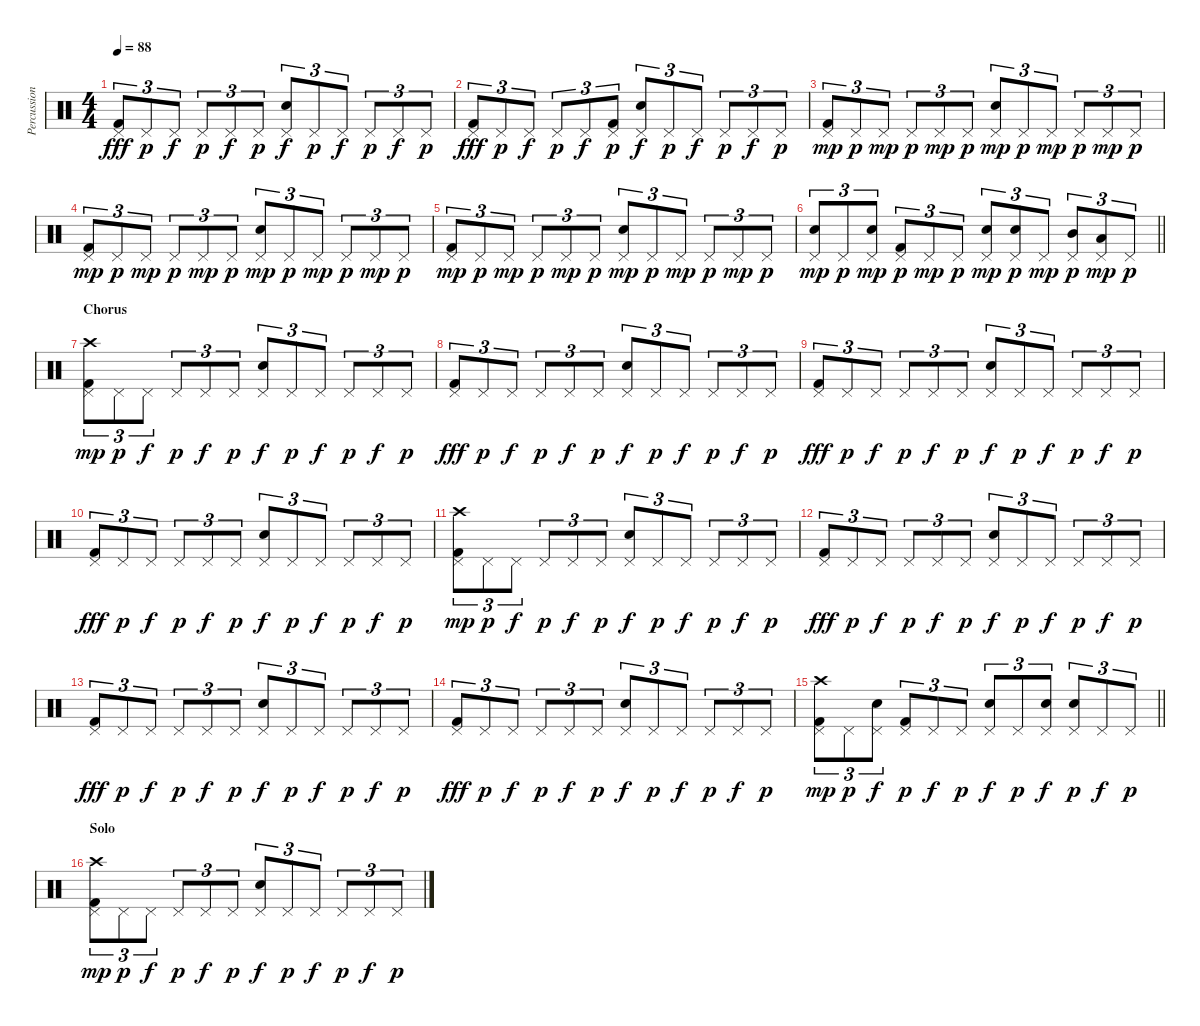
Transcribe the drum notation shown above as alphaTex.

\track ("Percussion" "Percussion") {instrument percussion}
\staff {score}
\articulation defaults
\ts (4 4)
\tempo 88
\clef neutral
\ks c
("Kick (hit) 2" "Pedal Hi-Hat (hit)").8{tu (3 2) dy fff} "Pedal Hi-Hat (hit)".8{tu (3 2) dy p} "Pedal Hi-Hat (hit)".8{tu (3 2) dy f} "Pedal Hi-Hat (hit)".8{tu (3 2) dy p} "Pedal Hi-Hat (hit)".8{tu (3 2) dy f} "Pedal Hi-Hat (hit)".8{tu (3 2) dy p} ("Electric Snare (hit)" "Pedal Hi-Hat (hit)").8{tu (3 2) dy f} "Pedal Hi-Hat (hit)".8{tu (3 2) dy p} "Pedal Hi-Hat (hit)".8{tu (3 2) dy f} "Pedal Hi-Hat (hit)".8{tu (3 2) dy p} "Pedal Hi-Hat (hit)".8{tu (3 2) dy f} "Pedal Hi-Hat (hit)".8{tu (3 2) dy p} |
("Kick (hit) 2" "Pedal Hi-Hat (hit)").8{tu (3 2) dy fff} "Pedal Hi-Hat (hit)".8{tu (3 2) dy p} "Pedal Hi-Hat (hit)".8{tu (3 2) dy f} "Pedal Hi-Hat (hit)".8{tu (3 2) dy p} "Pedal Hi-Hat (hit)".8{tu (3 2) dy f} ("Kick (hit) 2" "Pedal Hi-Hat (hit)").8{tu (3 2) dy p} ("Electric Snare (hit)" "Pedal Hi-Hat (hit)").8{tu (3 2) dy f} "Pedal Hi-Hat (hit)".8{tu (3 2) dy p} "Pedal Hi-Hat (hit)".8{tu (3 2) dy f} "Pedal Hi-Hat (hit)".8{tu (3 2) dy p} "Pedal Hi-Hat (hit)".8{tu (3 2) dy f} "Pedal Hi-Hat (hit)".8{tu (3 2) dy p} |
("Kick (hit) 2" "Pedal Hi-Hat (hit)").8{tu (3 2) dy mp} "Pedal Hi-Hat (hit)".8{tu (3 2) dy p} "Pedal Hi-Hat (hit)".8{tu (3 2) dy mp} "Pedal Hi-Hat (hit)".8{tu (3 2) dy p} "Pedal Hi-Hat (hit)".8{tu (3 2) dy mp} "Pedal Hi-Hat (hit)".8{tu (3 2) dy p} ("Electric Snare (hit)" "Pedal Hi-Hat (hit)").8{tu (3 2) dy mp} "Pedal Hi-Hat (hit)".8{tu (3 2) dy p} "Pedal Hi-Hat (hit)".8{tu (3 2) dy mp} "Pedal Hi-Hat (hit)".8{tu (3 2) dy p} "Pedal Hi-Hat (hit)".8{tu (3 2) dy mp} "Pedal Hi-Hat (hit)".8{tu (3 2) dy p} |
("Kick (hit) 2" "Pedal Hi-Hat (hit)").8{tu (3 2) dy mp} "Pedal Hi-Hat (hit)".8{tu (3 2) dy p} "Pedal Hi-Hat (hit)".8{tu (3 2) dy mp} "Pedal Hi-Hat (hit)".8{tu (3 2) dy p} "Pedal Hi-Hat (hit)".8{tu (3 2) dy mp} "Pedal Hi-Hat (hit)".8{tu (3 2) dy p} ("Electric Snare (hit)" "Pedal Hi-Hat (hit)").8{tu (3 2) dy mp} "Pedal Hi-Hat (hit)".8{tu (3 2) dy p} "Pedal Hi-Hat (hit)".8{tu (3 2) dy mp} "Pedal Hi-Hat (hit)".8{tu (3 2) dy p} "Pedal Hi-Hat (hit)".8{tu (3 2) dy mp} "Pedal Hi-Hat (hit)".8{tu (3 2) dy p} |
("Kick (hit) 2" "Pedal Hi-Hat (hit)").8{tu (3 2) dy mp} "Pedal Hi-Hat (hit)".8{tu (3 2) dy p} "Pedal Hi-Hat (hit)".8{tu (3 2) dy mp} "Pedal Hi-Hat (hit)".8{tu (3 2) dy p} "Pedal Hi-Hat (hit)".8{tu (3 2) dy mp} "Pedal Hi-Hat (hit)".8{tu (3 2) dy p} ("Electric Snare (hit)" "Pedal Hi-Hat (hit)").8{tu (3 2) dy mp} "Pedal Hi-Hat (hit)".8{tu (3 2) dy p} "Pedal Hi-Hat (hit)".8{tu (3 2) dy mp} "Pedal Hi-Hat (hit)".8{tu (3 2) dy p} "Pedal Hi-Hat (hit)".8{tu (3 2) dy mp} "Pedal Hi-Hat (hit)".8{tu (3 2) dy p} |
\barLineRight lightlight
("Electric Snare (hit)" "Pedal Hi-Hat (hit)").8{tu (3 2) dy mp} "Pedal Hi-Hat (hit)".8{tu (3 2) dy p} ("Electric Snare (hit)" "Pedal Hi-Hat (hit)").8{tu (3 2) dy mp} ("Kick (hit) 2" "Pedal Hi-Hat (hit)").8{tu (3 2) dy p} "Pedal Hi-Hat (hit)".8{tu (3 2) dy mp} "Pedal Hi-Hat (hit)".8{tu (3 2) dy p} ("Electric Snare (hit)" "Pedal Hi-Hat (hit)").8{tu (3 2) dy mp} ("Electric Snare (hit)" "Pedal Hi-Hat (hit)").8{tu (3 2) dy p} "Pedal Hi-Hat (hit)".8{tu (3 2) dy mp} ("Mid Tom (hit)" "Pedal Hi-Hat (hit)").8{tu (3 2) dy p} ("Low Tom (hit)" "Pedal Hi-Hat (hit)").8{tu (3 2) dy mp} "Pedal Hi-Hat (hit)".8{tu (3 2) dy p} |
\section ("" "Chorus")
("Kick (hit) 2" "Pedal Hi-Hat (hit)" "Crash high (hit)").8{tu (3 2) dy mp} "Pedal Hi-Hat (hit)".8{tu (3 2) dy p} "Pedal Hi-Hat (hit)".8{tu (3 2) dy f} "Pedal Hi-Hat (hit)".8{tu (3 2) dy p} "Pedal Hi-Hat (hit)".8{tu (3 2) dy f} "Pedal Hi-Hat (hit)".8{tu (3 2) dy p} ("Electric Snare (hit)" "Pedal Hi-Hat (hit)").8{tu (3 2) dy f} "Pedal Hi-Hat (hit)".8{tu (3 2) dy p} "Pedal Hi-Hat (hit)".8{tu (3 2) dy f} "Pedal Hi-Hat (hit)".8{tu (3 2) dy p} "Pedal Hi-Hat (hit)".8{tu (3 2) dy f} "Pedal Hi-Hat (hit)".8{tu (3 2) dy p} |
("Kick (hit) 2" "Pedal Hi-Hat (hit)").8{tu (3 2) dy fff} "Pedal Hi-Hat (hit)".8{tu (3 2) dy p} "Pedal Hi-Hat (hit)".8{tu (3 2) dy f} "Pedal Hi-Hat (hit)".8{tu (3 2) dy p} "Pedal Hi-Hat (hit)".8{tu (3 2) dy f} "Pedal Hi-Hat (hit)".8{tu (3 2) dy p} ("Electric Snare (hit)" "Pedal Hi-Hat (hit)").8{tu (3 2) dy f} "Pedal Hi-Hat (hit)".8{tu (3 2) dy p} "Pedal Hi-Hat (hit)".8{tu (3 2) dy f} "Pedal Hi-Hat (hit)".8{tu (3 2) dy p} "Pedal Hi-Hat (hit)".8{tu (3 2) dy f} "Pedal Hi-Hat (hit)".8{tu (3 2) dy p} |
("Kick (hit) 2" "Pedal Hi-Hat (hit)").8{tu (3 2) dy fff} "Pedal Hi-Hat (hit)".8{tu (3 2) dy p} "Pedal Hi-Hat (hit)".8{tu (3 2) dy f} "Pedal Hi-Hat (hit)".8{tu (3 2) dy p} "Pedal Hi-Hat (hit)".8{tu (3 2) dy f} "Pedal Hi-Hat (hit)".8{tu (3 2) dy p} ("Electric Snare (hit)" "Pedal Hi-Hat (hit)").8{tu (3 2) dy f} "Pedal Hi-Hat (hit)".8{tu (3 2) dy p} "Pedal Hi-Hat (hit)".8{tu (3 2) dy f} "Pedal Hi-Hat (hit)".8{tu (3 2) dy p} "Pedal Hi-Hat (hit)".8{tu (3 2) dy f} "Pedal Hi-Hat (hit)".8{tu (3 2) dy p} |
("Kick (hit) 2" "Pedal Hi-Hat (hit)").8{tu (3 2) dy fff} "Pedal Hi-Hat (hit)".8{tu (3 2) dy p} "Pedal Hi-Hat (hit)".8{tu (3 2) dy f} "Pedal Hi-Hat (hit)".8{tu (3 2) dy p} "Pedal Hi-Hat (hit)".8{tu (3 2) dy f} "Pedal Hi-Hat (hit)".8{tu (3 2) dy p} ("Electric Snare (hit)" "Pedal Hi-Hat (hit)").8{tu (3 2) dy f} "Pedal Hi-Hat (hit)".8{tu (3 2) dy p} "Pedal Hi-Hat (hit)".8{tu (3 2) dy f} "Pedal Hi-Hat (hit)".8{tu (3 2) dy p} "Pedal Hi-Hat (hit)".8{tu (3 2) dy f} "Pedal Hi-Hat (hit)".8{tu (3 2) dy p} |
("Kick (hit) 2" "Pedal Hi-Hat (hit)" "Crash high (hit)").8{tu (3 2) dy mp} "Pedal Hi-Hat (hit)".8{tu (3 2) dy p} "Pedal Hi-Hat (hit)".8{tu (3 2) dy f} "Pedal Hi-Hat (hit)".8{tu (3 2) dy p} "Pedal Hi-Hat (hit)".8{tu (3 2) dy f} "Pedal Hi-Hat (hit)".8{tu (3 2) dy p} ("Electric Snare (hit)" "Pedal Hi-Hat (hit)").8{tu (3 2) dy f} "Pedal Hi-Hat (hit)".8{tu (3 2) dy p} "Pedal Hi-Hat (hit)".8{tu (3 2) dy f} "Pedal Hi-Hat (hit)".8{tu (3 2) dy p} "Pedal Hi-Hat (hit)".8{tu (3 2) dy f} "Pedal Hi-Hat (hit)".8{tu (3 2) dy p} |
("Kick (hit) 2" "Pedal Hi-Hat (hit)").8{tu (3 2) dy fff} "Pedal Hi-Hat (hit)".8{tu (3 2) dy p} "Pedal Hi-Hat (hit)".8{tu (3 2) dy f} "Pedal Hi-Hat (hit)".8{tu (3 2) dy p} "Pedal Hi-Hat (hit)".8{tu (3 2) dy f} "Pedal Hi-Hat (hit)".8{tu (3 2) dy p} ("Electric Snare (hit)" "Pedal Hi-Hat (hit)").8{tu (3 2) dy f} "Pedal Hi-Hat (hit)".8{tu (3 2) dy p} "Pedal Hi-Hat (hit)".8{tu (3 2) dy f} "Pedal Hi-Hat (hit)".8{tu (3 2) dy p} "Pedal Hi-Hat (hit)".8{tu (3 2) dy f} "Pedal Hi-Hat (hit)".8{tu (3 2) dy p} |
("Kick (hit) 2" "Pedal Hi-Hat (hit)").8{tu (3 2) dy fff} "Pedal Hi-Hat (hit)".8{tu (3 2) dy p} "Pedal Hi-Hat (hit)".8{tu (3 2) dy f} "Pedal Hi-Hat (hit)".8{tu (3 2) dy p} "Pedal Hi-Hat (hit)".8{tu (3 2) dy f} "Pedal Hi-Hat (hit)".8{tu (3 2) dy p} ("Electric Snare (hit)" "Pedal Hi-Hat (hit)").8{tu (3 2) dy f} "Pedal Hi-Hat (hit)".8{tu (3 2) dy p} "Pedal Hi-Hat (hit)".8{tu (3 2) dy f} "Pedal Hi-Hat (hit)".8{tu (3 2) dy p} "Pedal Hi-Hat (hit)".8{tu (3 2) dy f} "Pedal Hi-Hat (hit)".8{tu (3 2) dy p} |
("Kick (hit) 2" "Pedal Hi-Hat (hit)").8{tu (3 2) dy fff} "Pedal Hi-Hat (hit)".8{tu (3 2) dy p} "Pedal Hi-Hat (hit)".8{tu (3 2) dy f} "Pedal Hi-Hat (hit)".8{tu (3 2) dy p} "Pedal Hi-Hat (hit)".8{tu (3 2) dy f} "Pedal Hi-Hat (hit)".8{tu (3 2) dy p} ("Electric Snare (hit)" "Pedal Hi-Hat (hit)").8{tu (3 2) dy f} "Pedal Hi-Hat (hit)".8{tu (3 2) dy p} "Pedal Hi-Hat (hit)".8{tu (3 2) dy f} "Pedal Hi-Hat (hit)".8{tu (3 2) dy p} "Pedal Hi-Hat (hit)".8{tu (3 2) dy f} "Pedal Hi-Hat (hit)".8{tu (3 2) dy p} |
\barLineRight lightlight
("Kick (hit) 2" "Pedal Hi-Hat (hit)" "Crash high (hit)").8{tu (3 2) dy mp} "Pedal Hi-Hat (hit)".8{tu (3 2) dy p} ("Electric Snare (hit)" "Pedal Hi-Hat (hit)").8{tu (3 2) dy f} ("Kick (hit) 2" "Pedal Hi-Hat (hit)").8{tu (3 2) dy p} "Pedal Hi-Hat (hit)".8{tu (3 2) dy f} "Pedal Hi-Hat (hit)".8{tu (3 2) dy p} ("Electric Snare (hit)" "Pedal Hi-Hat (hit)").8{tu (3 2) dy f} "Pedal Hi-Hat (hit)".8{tu (3 2) dy p} ("Electric Snare (hit)" "Pedal Hi-Hat (hit)").8{tu (3 2) dy f} ("Electric Snare (hit)" "Pedal Hi-Hat (hit)").8{tu (3 2) dy p} "Pedal Hi-Hat (hit)".8{tu (3 2) dy f} "Pedal Hi-Hat (hit)".8{tu (3 2) dy p} |
\section ("" "Solo")
("Kick (hit) 2" "Pedal Hi-Hat (hit)" "Crash high (hit)").8{tu (3 2) dy mp} "Pedal Hi-Hat (hit)".8{tu (3 2) dy p} "Pedal Hi-Hat (hit)".8{tu (3 2) dy f} "Pedal Hi-Hat (hit)".8{tu (3 2) dy p} "Pedal Hi-Hat (hit)".8{tu (3 2) dy f} "Pedal Hi-Hat (hit)".8{tu (3 2) dy p} ("Electric Snare (hit)" "Pedal Hi-Hat (hit)").8{tu (3 2) dy f} "Pedal Hi-Hat (hit)".8{tu (3 2) dy p} "Pedal Hi-Hat (hit)".8{tu (3 2) dy f} "Pedal Hi-Hat (hit)".8{tu (3 2) dy p} "Pedal Hi-Hat (hit)".8{tu (3 2) dy f} "Pedal Hi-Hat (hit)".8{tu (3 2) dy p}
